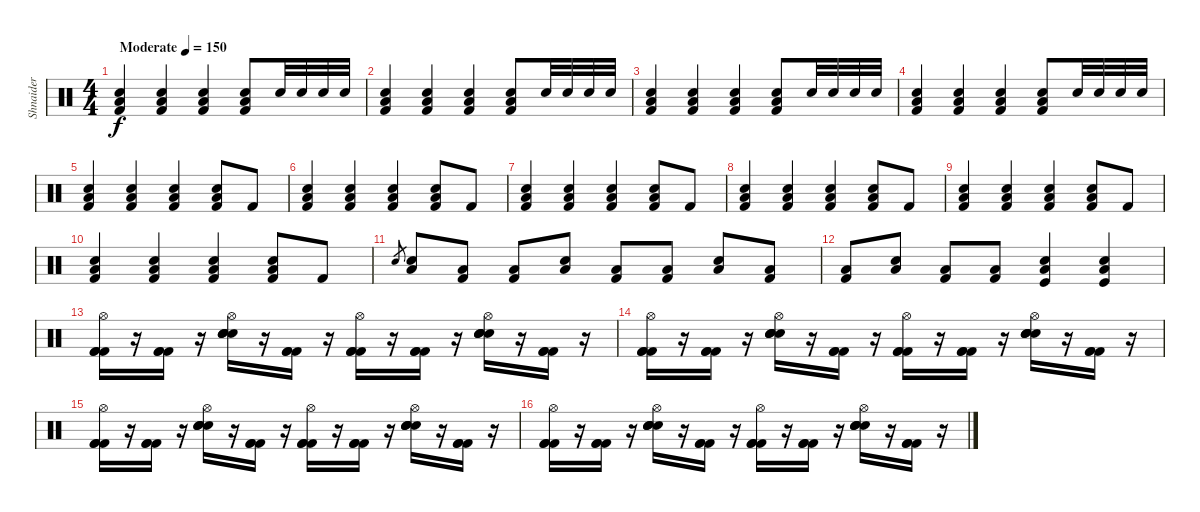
\track ("Shnaider" "Shnaider") {instrument percussion}
\staff {score}
\articulation defaults
\ts (4 4)
\tempo (150 "Moderate")
\clef neutral
\ks c
("Kick (hit) 2" "Electric Snare (hit)" "Low Floor Tom (hit)").4{dy f} ("Kick (hit) 2" "Electric Snare (hit)" "Low Floor Tom (hit)").4 ("Kick (hit) 2" "Electric Snare (hit)" "Low Floor Tom (hit)").4 ("Kick (hit) 2" "Electric Snare (hit)" "Low Floor Tom (hit)").8 "Electric Snare (hit)".32 "Electric Snare (hit)".32 "Electric Snare (hit)".32 "Electric Snare (hit)".32 |
("Kick (hit) 2" "Electric Snare (hit)" "Low Floor Tom (hit)").4 ("Kick (hit) 2" "Electric Snare (hit)" "Low Floor Tom (hit)").4 ("Kick (hit) 2" "Electric Snare (hit)" "Low Floor Tom (hit)").4 ("Kick (hit) 2" "Electric Snare (hit)" "Low Floor Tom (hit)").8 "Electric Snare (hit)".32 "Electric Snare (hit)".32 "Electric Snare (hit)".32 "Electric Snare (hit)".32 |
("Kick (hit) 2" "Electric Snare (hit)" "Low Floor Tom (hit)").4 ("Kick (hit) 2" "Electric Snare (hit)" "Low Floor Tom (hit)").4 ("Kick (hit) 2" "Electric Snare (hit)" "Low Floor Tom (hit)").4 ("Kick (hit) 2" "Electric Snare (hit)" "Low Floor Tom (hit)").8 "Electric Snare (hit)".32 "Electric Snare (hit)".32 "Electric Snare (hit)".32 "Electric Snare (hit)".32 |
("Kick (hit) 2" "Electric Snare (hit)" "Low Floor Tom (hit)").4 ("Kick (hit) 2" "Electric Snare (hit)" "Low Floor Tom (hit)").4 ("Kick (hit) 2" "Electric Snare (hit)" "Low Floor Tom (hit)").4 ("Kick (hit) 2" "Electric Snare (hit)" "Low Floor Tom (hit)").8 "Electric Snare (hit)".32 "Electric Snare (hit)".32 "Electric Snare (hit)".32 "Electric Snare (hit)".32 |
("Kick (hit) 2" "Electric Snare (hit)" "Low Floor Tom (hit)").4 ("Kick (hit) 2" "Electric Snare (hit)" "Low Floor Tom (hit)").4 ("Kick (hit) 2" "Electric Snare (hit)" "Low Floor Tom (hit)").4 ("Kick (hit) 2" "Electric Snare (hit)" "Low Floor Tom (hit)").8 "Kick (hit) 2".8 |
("Kick (hit) 2" "Electric Snare (hit)" "Low Floor Tom (hit)").4 ("Kick (hit) 2" "Electric Snare (hit)" "Low Floor Tom (hit)").4 ("Kick (hit) 2" "Electric Snare (hit)" "Low Floor Tom (hit)").4 ("Kick (hit) 2" "Electric Snare (hit)" "Low Floor Tom (hit)").8 "Kick (hit) 2".8 |
("Kick (hit) 2" "Electric Snare (hit)" "Low Floor Tom (hit)").4 ("Kick (hit) 2" "Electric Snare (hit)" "Low Floor Tom (hit)").4 ("Kick (hit) 2" "Electric Snare (hit)" "Low Floor Tom (hit)").4 ("Kick (hit) 2" "Electric Snare (hit)" "Low Floor Tom (hit)").8 "Kick (hit) 2".8 |
("Kick (hit) 2" "Electric Snare (hit)" "Low Floor Tom (hit)").4 ("Kick (hit) 2" "Electric Snare (hit)" "Low Floor Tom (hit)").4 ("Kick (hit) 2" "Electric Snare (hit)" "Low Floor Tom (hit)").4 ("Kick (hit) 2" "Electric Snare (hit)" "Low Floor Tom (hit)").8 "Kick (hit) 2".8 |
("Kick (hit) 2" "Electric Snare (hit)" "Low Floor Tom (hit)").4 ("Kick (hit) 2" "Electric Snare (hit)" "Low Floor Tom (hit)").4 ("Kick (hit) 2" "Electric Snare (hit)" "Low Floor Tom (hit)").4 ("Kick (hit) 2" "Electric Snare (hit)" "Low Floor Tom (hit)").8 "Kick (hit) 2".8 |
("Kick (hit) 2" "Electric Snare (hit)" "Low Floor Tom (hit)").4 ("Kick (hit) 2" "Electric Snare (hit)" "Low Floor Tom (hit)").4 ("Kick (hit) 2" "Electric Snare (hit)" "Low Floor Tom (hit)").4 ("Kick (hit) 2" "Electric Snare (hit)" "Low Floor Tom (hit)").8 "Kick (hit) 2".8 |
"Snare (hit) 2".8{gr} ("Low Floor Tom (hit)" "Snare (hit) 2").8 ("Low Floor Tom (hit)" "Kick (hit) 2").8 ("Low Floor Tom (hit)" "Kick (hit) 2").8 ("Low Floor Tom (hit)" "Snare (hit) 2").8 ("Low Floor Tom (hit)" "Kick (hit) 2").8 ("Low Floor Tom (hit)" "Kick (hit) 2").8 ("Low Floor Tom (hit)" "Snare (hit) 2").8 ("Low Floor Tom (hit)" "Kick (hit) 2").8 |
("Low Floor Tom (hit)" "Kick (hit) 2").8 ("Low Floor Tom (hit)" "Snare (hit) 2").8 ("Low Floor Tom (hit)" "Kick (hit) 2").8 ("Low Floor Tom (hit)" "Kick (hit) 2").8 ("Kick (hit)" "Low Floor Tom (hit)" "Snare (hit) 2").4 ("Kick (hit)" "Low Floor Tom (hit)" "Snare (hit) 2").4 |
("Kick (hit) 2" "Kick (hit) 2" "Kick (hit) 2" "Hi-Hat (open)").16 r.16 ("Kick (hit) 2" "Kick (hit) 2" "Kick (hit) 2").16 r.16 ("Electric Snare (hit)" "Electric Snare (hit)" "Electric Snare (hit)" "Electric Snare (hit)" "Hi-Hat (open)").16 r.16 ("Kick (hit) 2" "Kick (hit) 2" "Kick (hit) 2").16 r.16 ("Kick (hit) 2" "Kick (hit) 2" "Kick (hit) 2" "Hi-Hat (open)").16 r.16 ("Kick (hit) 2" "Kick (hit) 2" "Kick (hit) 2").16 r.16 ("Electric Snare (hit)" "Electric Snare (hit)" "Electric Snare (hit)" "Electric Snare (hit)" "Hi-Hat (open)").16 r.16 ("Kick (hit) 2" "Kick (hit) 2" "Kick (hit) 2").16 r.16 |
("Kick (hit) 2" "Kick (hit) 2" "Kick (hit) 2" "Hi-Hat (open)").16 r.16 ("Kick (hit) 2" "Kick (hit) 2" "Kick (hit) 2").16 r.16 ("Electric Snare (hit)" "Electric Snare (hit)" "Electric Snare (hit)" "Electric Snare (hit)" "Hi-Hat (open)").16 r.16 ("Kick (hit) 2" "Kick (hit) 2" "Kick (hit) 2").16 r.16 ("Kick (hit) 2" "Kick (hit) 2" "Kick (hit) 2" "Hi-Hat (open)").16 r.16 ("Kick (hit) 2" "Kick (hit) 2" "Kick (hit) 2").16 r.16 ("Electric Snare (hit)" "Electric Snare (hit)" "Electric Snare (hit)" "Electric Snare (hit)" "Hi-Hat (open)").16 r.16 ("Kick (hit) 2" "Kick (hit) 2" "Kick (hit) 2").16 r.16 |
("Kick (hit) 2" "Kick (hit) 2" "Kick (hit) 2" "Hi-Hat (open)").16 r.16 ("Kick (hit) 2" "Kick (hit) 2" "Kick (hit) 2").16 r.16 ("Electric Snare (hit)" "Electric Snare (hit)" "Electric Snare (hit)" "Electric Snare (hit)" "Hi-Hat (open)").16 r.16 ("Kick (hit) 2" "Kick (hit) 2" "Kick (hit) 2").16 r.16 ("Kick (hit) 2" "Kick (hit) 2" "Kick (hit) 2" "Hi-Hat (open)").16 r.16 ("Kick (hit) 2" "Kick (hit) 2" "Kick (hit) 2").16 r.16 ("Electric Snare (hit)" "Electric Snare (hit)" "Electric Snare (hit)" "Electric Snare (hit)" "Hi-Hat (open)").16 r.16 ("Kick (hit) 2" "Kick (hit) 2" "Kick (hit) 2").16 r.16 |
("Kick (hit) 2" "Kick (hit) 2" "Kick (hit) 2" "Hi-Hat (open)").16 r.16 ("Kick (hit) 2" "Kick (hit) 2" "Kick (hit) 2").16 r.16 ("Electric Snare (hit)" "Electric Snare (hit)" "Electric Snare (hit)" "Electric Snare (hit)" "Hi-Hat (open)").16 r.16 ("Kick (hit) 2" "Kick (hit) 2" "Kick (hit) 2").16 r.16 ("Kick (hit) 2" "Kick (hit) 2" "Kick (hit) 2" "Hi-Hat (open)").16 r.16 ("Kick (hit) 2" "Kick (hit) 2" "Kick (hit) 2").16 r.16 ("Electric Snare (hit)" "Electric Snare (hit)" "Electric Snare (hit)" "Electric Snare (hit)" "Hi-Hat (open)").16 r.16 ("Kick (hit) 2" "Kick (hit) 2" "Kick (hit) 2").16 r.16
